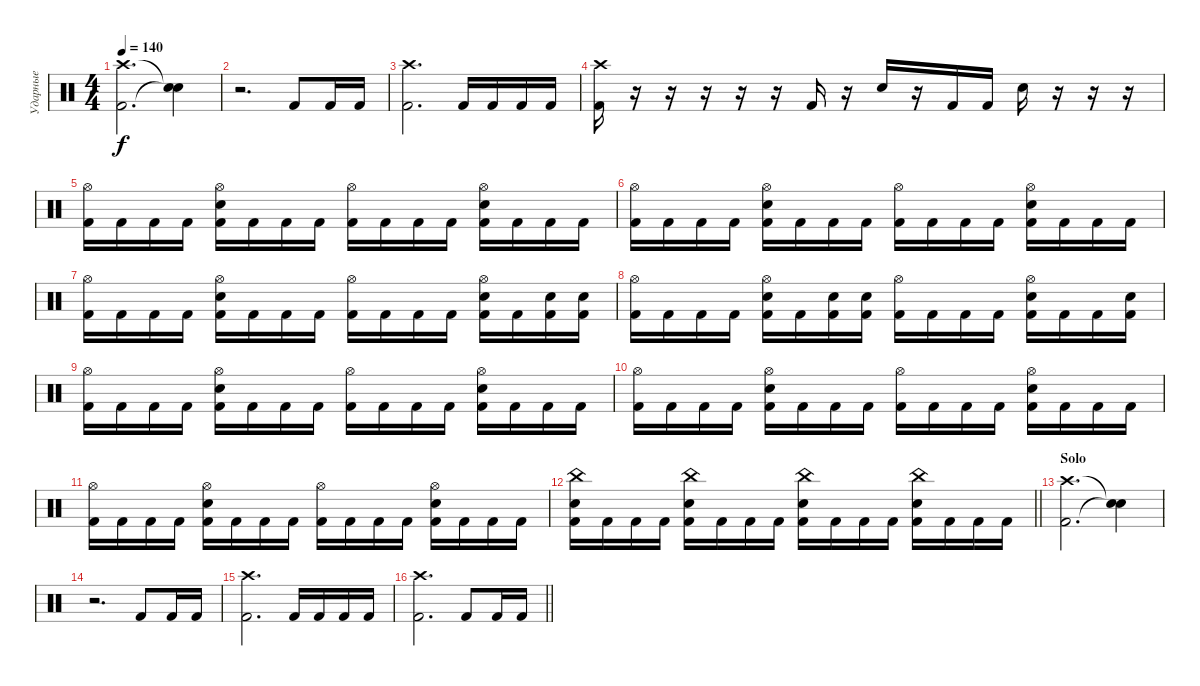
\track ("Ударные" "Ударные") {instrument percussion}
\staff {score}
\articulation defaults
\ts (4 4)
\tempo 140
\clef neutral
\ks c
("Crash high (hit)" "Kick (hit) 2").2{d dy f} ("Snare (hit)"{t} "Snare (hit)"{t}).4 |
r.2{d} "Kick (hit) 2".8 "Kick (hit) 2".16 "Kick (hit) 2".16 |
("Crash high (hit)" "Kick (hit) 2").2{d} "Kick (hit) 2".16 "Kick (hit) 2".16 "Kick (hit) 2".16 "Kick (hit) 2".16 |
("Crash high (hit)" "Kick (hit) 2").16 r.16 r.16 r.16 r.16 r.16 "Kick (hit) 2".16 r.16 "Electric Snare (hit)".16 r.16 "Kick (hit) 2".16 "Kick (hit) 2".16 "Electric Snare (hit)".16 r.16 r.16 r.16 |
("Hi-Hat (open)" "Kick (hit) 2").16 "Kick (hit) 2".16 "Kick (hit) 2".16 "Kick (hit) 2".16 ("Hi-Hat (open)" "Electric Snare (hit)" "Kick (hit) 2").16 "Kick (hit) 2".16 "Kick (hit) 2".16 "Kick (hit) 2".16 ("Hi-Hat (open)" "Kick (hit) 2").16 "Kick (hit) 2".16 "Kick (hit) 2".16 "Kick (hit) 2".16 ("Hi-Hat (open)" "Electric Snare (hit)" "Kick (hit) 2").16 "Kick (hit) 2".16 "Kick (hit) 2".16 "Kick (hit) 2".16 |
("Hi-Hat (open)" "Kick (hit) 2").16 "Kick (hit) 2".16 "Kick (hit) 2".16 "Kick (hit) 2".16 ("Hi-Hat (open)" "Electric Snare (hit)" "Kick (hit) 2").16 "Kick (hit) 2".16 "Kick (hit) 2".16 "Kick (hit) 2".16 ("Hi-Hat (open)" "Kick (hit) 2").16 "Kick (hit) 2".16 "Kick (hit) 2".16 "Kick (hit) 2".16 ("Hi-Hat (open)" "Electric Snare (hit)" "Kick (hit) 2").16 "Kick (hit) 2".16 "Kick (hit) 2".16 "Kick (hit) 2".16 |
("Hi-Hat (open)" "Kick (hit) 2").16 "Kick (hit) 2".16 "Kick (hit) 2".16 "Kick (hit) 2".16 ("Hi-Hat (open)" "Electric Snare (hit)" "Kick (hit) 2").16 "Kick (hit) 2".16 "Kick (hit) 2".16 "Kick (hit) 2".16 ("Hi-Hat (open)" "Kick (hit) 2").16 "Kick (hit) 2".16 "Kick (hit) 2".16 "Kick (hit) 2".16 ("Hi-Hat (open)" "Electric Snare (hit)" "Kick (hit) 2").16 "Kick (hit) 2".16 ("Electric Snare (hit)" "Kick (hit) 2").16 ("Electric Snare (hit)" "Kick (hit) 2").16 |
("Hi-Hat (open)" "Kick (hit) 2").16 "Kick (hit) 2".16 "Kick (hit) 2".16 "Kick (hit) 2".16 ("Hi-Hat (open)" "Electric Snare (hit)" "Kick (hit) 2").16 "Kick (hit) 2".16 ("Electric Snare (hit)" "Kick (hit) 2").16 ("Electric Snare (hit)" "Kick (hit) 2").16 ("Hi-Hat (open)" "Kick (hit) 2").16 "Kick (hit) 2".16 "Kick (hit) 2".16 "Kick (hit) 2".16 ("Hi-Hat (open)" "Electric Snare (hit)" "Kick (hit) 2").16 "Kick (hit) 2".16 "Kick (hit) 2".16 ("Electric Snare (hit)" "Kick (hit) 2").16 |
("Hi-Hat (open)" "Kick (hit) 2").16 "Kick (hit) 2".16 "Kick (hit) 2".16 "Kick (hit) 2".16 ("Hi-Hat (open)" "Electric Snare (hit)" "Kick (hit) 2").16 "Kick (hit) 2".16 "Kick (hit) 2".16 "Kick (hit) 2".16 ("Hi-Hat (open)" "Kick (hit) 2").16 "Kick (hit) 2".16 "Kick (hit) 2".16 "Kick (hit) 2".16 ("Hi-Hat (open)" "Electric Snare (hit)" "Kick (hit) 2").16 "Kick (hit) 2".16 "Kick (hit) 2".16 "Kick (hit) 2".16 |
("Hi-Hat (open)" "Kick (hit) 2").16 "Kick (hit) 2".16 "Kick (hit) 2".16 "Kick (hit) 2".16 ("Hi-Hat (open)" "Electric Snare (hit)" "Kick (hit) 2").16 "Kick (hit) 2".16 "Kick (hit) 2".16 "Kick (hit) 2".16 ("Hi-Hat (open)" "Kick (hit) 2").16 "Kick (hit) 2".16 "Kick (hit) 2".16 "Kick (hit) 2".16 ("Hi-Hat (open)" "Electric Snare (hit)" "Kick (hit) 2").16 "Kick (hit) 2".16 "Kick (hit) 2".16 "Kick (hit) 2".16 |
("Hi-Hat (open)" "Kick (hit) 2").16 "Kick (hit) 2".16 "Kick (hit) 2".16 "Kick (hit) 2".16 ("Hi-Hat (open)" "Electric Snare (hit)" "Kick (hit) 2").16 "Kick (hit) 2".16 "Kick (hit) 2".16 "Kick (hit) 2".16 ("Hi-Hat (open)" "Kick (hit) 2").16 "Kick (hit) 2".16 "Kick (hit) 2".16 "Kick (hit) 2".16 ("Hi-Hat (open)" "Electric Snare (hit)" "Kick (hit) 2").16 "Kick (hit) 2".16 "Kick (hit) 2".16 "Kick (hit) 2".16 |
\barLineRight lightlight
("China (hit)" "Electric Snare (hit)" "Kick (hit) 2").16 "Kick (hit) 2".16 "Kick (hit) 2".16 "Kick (hit) 2".16 ("China (hit)" "Electric Snare (hit)" "Kick (hit) 2").16 "Kick (hit) 2".16 "Kick (hit) 2".16 "Kick (hit) 2".16 ("China (hit)" "Electric Snare (hit)" "Kick (hit) 2").16 "Kick (hit) 2".16 "Kick (hit) 2".16 "Kick (hit) 2".16 ("China (hit)" "Electric Snare (hit)" "Kick (hit) 2").16 "Kick (hit) 2".16 "Kick (hit) 2".16 "Kick (hit) 2".16 |
\section ("" "Solo")
("Crash high (hit)" "Kick (hit) 2").2{d} ("Snare (hit)"{t} "Snare (hit)"{t}).4 |
r.2{d} "Kick (hit) 2".8 "Kick (hit) 2".16 "Kick (hit) 2".16 |
("Crash high (hit)" "Kick (hit) 2").2{d} "Kick (hit) 2".16 "Kick (hit) 2".16 "Kick (hit) 2".16 "Kick (hit) 2".16 |
\barLineRight lightlight
("Crash high (hit)" "Kick (hit) 2").2{d} "Kick (hit) 2".8 "Kick (hit) 2".16 "Kick (hit) 2".16
